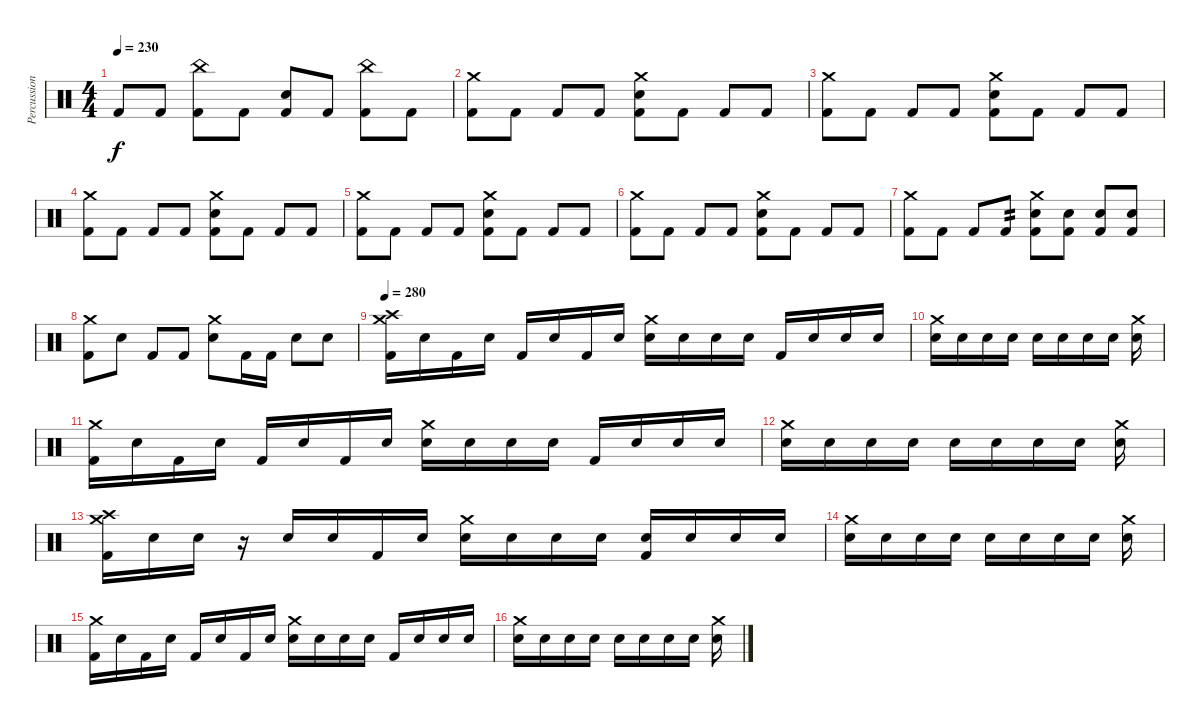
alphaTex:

\track ("Percussion" "Percussion") {instrument percussion}
\staff {score}
\articulation defaults
\ts (4 4)
\tempo 230
\clef neutral
\ks c "Kick (hit) 2".8{dy f} "Kick (hit) 2".8
("China (hit)" "Kick (hit) 2").8 "Kick (hit) 2".8 ("Snare (hit) 2" "Kick (hit) 2").8 "Kick (hit) 2".8 ("China (hit)" "Kick (hit) 2").8 "Kick (hit) 2".8 |
("Crash medium (hit)" "Kick (hit) 2").8 "Kick (hit) 2".8 "Kick (hit) 2".8 "Kick (hit) 2".8 ("Snare (hit) 2" "Crash medium (hit)" "Kick (hit) 2").8 "Kick (hit) 2".8 "Kick (hit) 2".8 "Kick (hit) 2".8 |
("Crash medium (hit)" "Kick (hit) 2").8 "Kick (hit) 2".8 "Kick (hit) 2".8 "Kick (hit) 2".8 ("Snare (hit) 2" "Crash medium (hit)" "Kick (hit) 2").8 "Kick (hit) 2".8 "Kick (hit) 2".8 "Kick (hit) 2".8 |
("Crash medium (hit)" "Kick (hit) 2").8 "Kick (hit) 2".8 "Kick (hit) 2".8 "Kick (hit) 2".8 ("Snare (hit) 2" "Crash medium (hit)" "Kick (hit) 2").8 "Kick (hit) 2".8 "Kick (hit) 2".8 "Kick (hit) 2".8 |
("Crash medium (hit)" "Kick (hit) 2").8 "Kick (hit) 2".8 "Kick (hit) 2".8 "Kick (hit) 2".8 ("Snare (hit) 2" "Crash medium (hit)" "Kick (hit) 2").8 "Kick (hit) 2".8 "Kick (hit) 2".8 "Kick (hit) 2".8 |
("Crash medium (hit)" "Kick (hit) 2").8 "Kick (hit) 2".8 "Kick (hit) 2".8 "Kick (hit) 2".8 ("Snare (hit) 2" "Crash medium (hit)" "Kick (hit) 2").8 "Kick (hit) 2".8 "Kick (hit) 2".8 "Kick (hit) 2".8 |
("Crash medium (hit)" "Kick (hit) 2").8 "Kick (hit) 2".8 "Kick (hit) 2".8 "Kick (hit) 2".8{tp 2} ("Snare (hit) 2" "Crash medium (hit)" "Kick (hit) 2").8 ("Snare (hit) 2" "Kick (hit) 2").8 ("Snare (hit) 2" "Kick (hit) 2").8 ("Snare (hit) 2" "Kick (hit) 2").8 |
("Kick (hit) 2" "Crash medium (hit)").8 "Snare (hit) 2".8 "Kick (hit) 2".8 "Kick (hit) 2".8 ("Snare (hit) 2" "Crash medium (hit)").8 "Kick (hit) 2".16 "Kick (hit) 2".16 "Snare (hit) 2".8 "Snare (hit) 2".8 |
\tempo 280
("Crash medium (hit)" "Kick (hit) 2" "Crash high (hit)").16 "Snare (hit)".16 "Kick (hit) 2".16 "Snare (hit)".16 "Kick (hit) 2".16 "Snare (hit)".16 "Kick (hit) 2".16 "Snare (hit)".16 ("Crash medium (hit)" "Snare (hit)").16 "Snare (hit)".16 "Snare (hit)".16 "Snare (hit)".16 "Kick (hit) 2".16 "Snare (hit)".16 "Snare (hit)".16 "Snare (hit)".16 |
("Crash medium (hit)" "Snare (hit) 2").16 "Snare (hit)".16 "Snare (hit)".16 "Snare (hit)".16 "Snare (hit)".16 "Snare (hit)".16 "Snare (hit)".16 "Snare (hit)".16 ("Crash medium (hit)" "Snare (hit)").16 |
("Crash medium (hit)" "Kick (hit) 2").16 "Snare (hit)".16 "Kick (hit) 2".16 "Snare (hit)".16 "Kick (hit) 2".16 "Snare (hit)".16 "Kick (hit) 2".16 "Snare (hit)".16 ("Crash medium (hit)" "Snare (hit)").16 "Snare (hit)".16 "Snare (hit)".16 "Snare (hit)".16 "Kick (hit) 2".16 "Snare (hit)".16 "Snare (hit)".16 "Snare (hit)".16 |
("Crash medium (hit)" "Snare (hit) 2").16 "Snare (hit)".16 "Snare (hit)".16 "Snare (hit)".16 "Snare (hit)".16 "Snare (hit)".16 "Snare (hit)".16 "Snare (hit)".16 ("Crash medium (hit)" "Snare (hit)").16 |
("Crash high (hit)" "Crash medium (hit)" "Kick (hit) 2").16 "Snare (hit)".16 "Snare (hit)".16 r.16 "Snare (hit)".16 "Snare (hit)".16 "Kick (hit) 2".16 "Snare (hit)".16 ("Crash medium (hit)" "Snare (hit)").16 "Snare (hit)".16 "Snare (hit)".16 "Snare (hit)".16 ("Kick (hit) 2" "Snare (hit)").16 "Snare (hit)".16 "Snare (hit)".16 "Snare (hit)".16 |
("Crash medium (hit)" "Snare (hit) 2").16 "Snare (hit)".16 "Snare (hit)".16 "Snare (hit)".16 "Snare (hit)".16 "Snare (hit)".16 "Snare (hit)".16 "Snare (hit)".16 ("Crash medium (hit)" "Snare (hit)").16 |
("Crash medium (hit)" "Kick (hit) 2").16 "Snare (hit)".16 "Kick (hit) 2".16 "Snare (hit)".16 "Kick (hit) 2".16 "Snare (hit)".16 "Kick (hit) 2".16 "Snare (hit)".16 ("Crash medium (hit)" "Snare (hit)").16 "Snare (hit)".16 "Snare (hit)".16 "Snare (hit)".16 "Kick (hit) 2".16 "Snare (hit)".16 "Snare (hit)".16 "Snare (hit)".16 |
("Crash medium (hit)" "Snare (hit) 2").16 "Snare (hit)".16 "Snare (hit)".16 "Snare (hit)".16 "Snare (hit)".16 "Snare (hit)".16 "Snare (hit)".16 "Snare (hit)".16 ("Crash medium (hit)" "Snare (hit)").16
